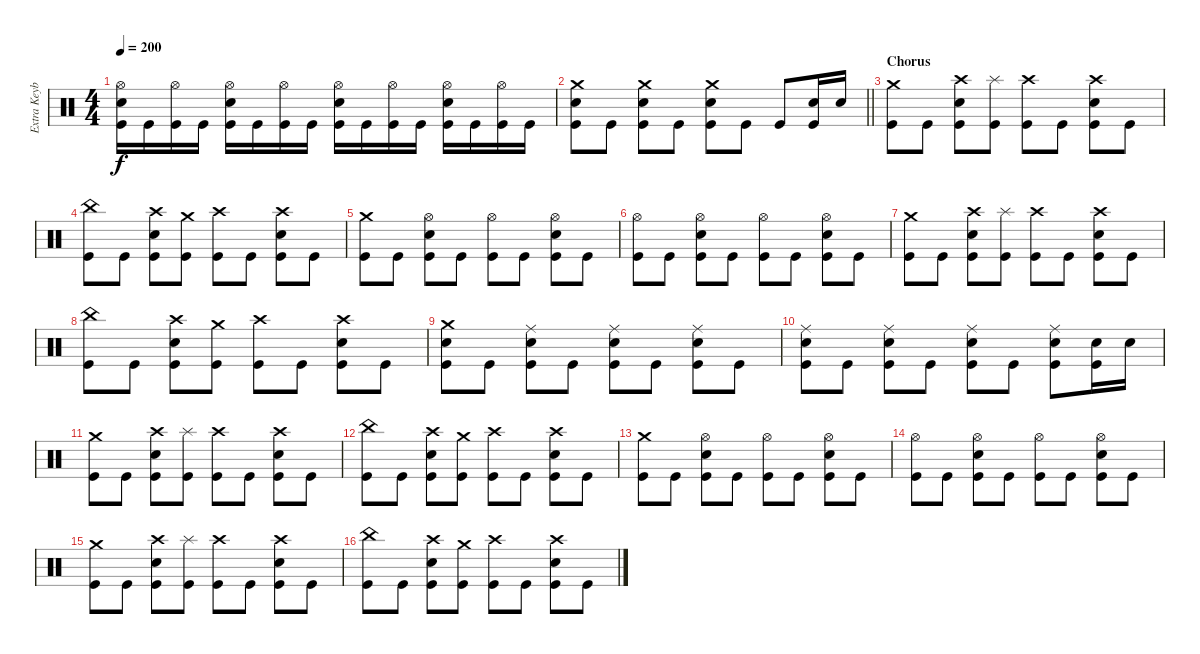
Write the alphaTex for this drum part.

\track ("Extra Keyboard" "Extra Keyb") {instrument percussion}
\staff {score}
\articulation defaults
\ts (4 4)
\tempo 200
\clef neutral
\ks c
("Hi-Hat (open)" "Electric Snare (hit)" "Kick (hit)").16{dy f} "Kick (hit)".16 ("Hi-Hat (open)" "Kick (hit)").16 "Kick (hit)".16 ("Hi-Hat (open)" "Electric Snare (hit)" "Kick (hit)").16 "Kick (hit)".16 ("Hi-Hat (open)" "Kick (hit)").16 "Kick (hit)".16 ("Hi-Hat (open)" "Electric Snare (hit)" "Kick (hit)").16 "Kick (hit)".16 ("Hi-Hat (open)" "Kick (hit)").16 "Kick (hit)".16 ("Hi-Hat (open)" "Electric Snare (hit)" "Kick (hit)").16 "Kick (hit)".16 ("Hi-Hat (open)" "Kick (hit)").16 "Kick (hit)".16 |
\barLineRight lightlight
("Crash medium (hit)" "Electric Snare (hit)" "Kick (hit)").8 "Kick (hit)".8 ("Crash medium (hit)" "Electric Snare (hit)" "Kick (hit)").8 "Kick (hit)".8 ("Crash medium (hit)" "Electric Snare (hit)" "Kick (hit)").8 "Kick (hit)".8 "Kick (hit)".8 ("Electric Snare (hit)" "Kick (hit)").16 "Electric Snare (hit)".16 |
\section ("" "Chorus")
("Crash medium (hit)" "Kick (hit)").8 "Kick (hit)".8 ("Crash high (hit)" "Electric Snare (hit)" "Kick (hit)").8 ("Splash (hit)" "Kick (hit)").8 ("Crash high (hit)" "Kick (hit)").8 "Kick (hit)".8 ("Crash high (hit)" "Electric Snare (hit)" "Kick (hit)").8 "Kick (hit)".8 |
("China (hit)" "Kick (hit)").8 "Kick (hit)".8 ("Crash high (hit)" "Electric Snare (hit)" "Kick (hit)").8 ("Crash medium (hit)" "Kick (hit)").8 ("Crash high (hit)" "Kick (hit)").8 "Kick (hit)".8 ("Crash high (hit)" "Electric Snare (hit)" "Kick (hit)").8 "Kick (hit)".8 |
("Crash medium (hit)" "Kick (hit)").8 "Kick (hit)".8 ("Hi-Hat (open)" "Electric Snare (hit)" "Kick (hit)").8 "Kick (hit)".8 ("Hi-Hat (open)" "Kick (hit)").8 "Kick (hit)".8 ("Hi-Hat (open)" "Electric Snare (hit)" "Kick (hit)").8 "Kick (hit)".8 |
("Hi-Hat (open)" "Kick (hit)").8 "Kick (hit)".8 ("Hi-Hat (open)" "Electric Snare (hit)" "Kick (hit)").8 "Kick (hit)".8 ("Hi-Hat (open)" "Kick (hit)").8 "Kick (hit)".8 ("Hi-Hat (open)" "Electric Snare (hit)" "Kick (hit)").8 "Kick (hit)".8 |
("Crash medium (hit)" "Kick (hit)").8 "Kick (hit)".8 ("Crash high (hit)" "Electric Snare (hit)" "Kick (hit)").8 ("Splash (hit)" "Kick (hit)").8 ("Crash high (hit)" "Kick (hit)").8 "Kick (hit)".8 ("Crash high (hit)" "Electric Snare (hit)" "Kick (hit)").8 "Kick (hit)".8 |
("China (hit)" "Kick (hit)").8 "Kick (hit)".8 ("Crash high (hit)" "Electric Snare (hit)" "Kick (hit)").8 ("Crash medium (hit)" "Kick (hit)").8 ("Crash high (hit)" "Kick (hit)").8 "Kick (hit)".8 ("Crash high (hit)" "Electric Snare (hit)" "Kick (hit)").8 "Kick (hit)".8 |
("Crash medium (hit)" "Electric Snare (hit)" "Kick (hit)").8 "Kick (hit)".8 ("Ride (middle)" "Electric Snare (hit)" "Kick (hit)").8 "Kick (hit)".8 ("Ride (middle)" "Electric Snare (hit)" "Kick (hit)").8 "Kick (hit)".8 ("Ride (middle)" "Electric Snare (hit)" "Kick (hit)").8 "Kick (hit)".8 |
("Ride (middle)" "Electric Snare (hit)" "Kick (hit)").8 "Kick (hit)".8 ("Ride (middle)" "Electric Snare (hit)" "Kick (hit)").8 "Kick (hit)".8 ("Ride (middle)" "Electric Snare (hit)" "Kick (hit)").8 "Kick (hit)".8 ("Ride (middle)" "Electric Snare (hit)" "Kick (hit)").8 ("Electric Snare (hit)" "Kick (hit)").16 "Electric Snare (hit)".16 |
("Crash medium (hit)" "Kick (hit)").8 "Kick (hit)".8 ("Crash high (hit)" "Electric Snare (hit)" "Kick (hit)").8 ("Splash (hit)" "Kick (hit)").8 ("Crash high (hit)" "Kick (hit)").8 "Kick (hit)".8 ("Crash high (hit)" "Electric Snare (hit)" "Kick (hit)").8 "Kick (hit)".8 |
("China (hit)" "Kick (hit)").8 "Kick (hit)".8 ("Crash high (hit)" "Electric Snare (hit)" "Kick (hit)").8 ("Crash medium (hit)" "Kick (hit)").8 ("Crash high (hit)" "Kick (hit)").8 "Kick (hit)".8 ("Crash high (hit)" "Electric Snare (hit)" "Kick (hit)").8 "Kick (hit)".8 |
("Crash medium (hit)" "Kick (hit)").8 "Kick (hit)".8 ("Hi-Hat (open)" "Electric Snare (hit)" "Kick (hit)").8 "Kick (hit)".8 ("Hi-Hat (open)" "Kick (hit)").8 "Kick (hit)".8 ("Hi-Hat (open)" "Electric Snare (hit)" "Kick (hit)").8 "Kick (hit)".8 |
("Hi-Hat (open)" "Kick (hit)").8 "Kick (hit)".8 ("Hi-Hat (open)" "Electric Snare (hit)" "Kick (hit)").8 "Kick (hit)".8 ("Hi-Hat (open)" "Kick (hit)").8 "Kick (hit)".8 ("Hi-Hat (open)" "Electric Snare (hit)" "Kick (hit)").8 "Kick (hit)".8 |
("Crash medium (hit)" "Kick (hit)").8 "Kick (hit)".8 ("Crash high (hit)" "Electric Snare (hit)" "Kick (hit)").8 ("Splash (hit)" "Kick (hit)").8 ("Crash high (hit)" "Kick (hit)").8 "Kick (hit)".8 ("Crash high (hit)" "Electric Snare (hit)" "Kick (hit)").8 "Kick (hit)".8 |
("China (hit)" "Kick (hit)").8 "Kick (hit)".8 ("Crash high (hit)" "Electric Snare (hit)" "Kick (hit)").8 ("Crash medium (hit)" "Kick (hit)").8 ("Crash high (hit)" "Kick (hit)").8 "Kick (hit)".8 ("Crash high (hit)" "Electric Snare (hit)" "Kick (hit)").8 "Kick (hit)".8
